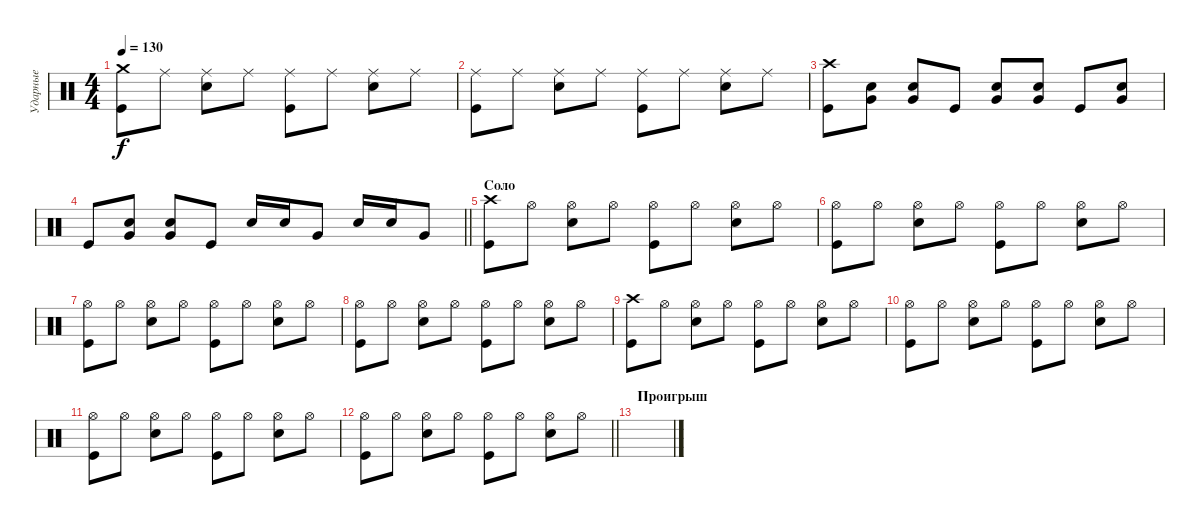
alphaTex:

\track ("Ударные" "Ударные") {instrument percussion}
\staff {score}
\articulation defaults
\ts (4 4)
\tempo 130
\clef neutral
\ks c
("Kick (hit)" "Crash medium (hit)").8{dy f} "Ride (middle)".8 ("Snare (hit) 2" "Ride (middle)").8 "Ride (middle)".8 ("Kick (hit)" "Ride (middle)").8 "Ride (middle)".8 ("Snare (hit) 2" "Ride (middle)").8 "Ride (middle)".8 |
("Kick (hit)" "Ride (middle)").8 "Ride (middle)".8 ("Snare (hit) 2" "Ride (middle)").8 "Ride (middle)".8 ("Kick (hit)" "Ride (middle)").8 "Ride (middle)".8 ("Snare (hit) 2" "Ride (middle)").8 "Ride (middle)".8 |
("Kick (hit)" "Crash high (hit)").8 ("Snare (hit) 2" "Very Low Tom (hit)").8 ("Snare (hit) 2" "Very Low Tom (hit)").8 "Kick (hit)".8 ("Snare (hit) 2" "Very Low Tom (hit)").8 ("Snare (hit) 2" "Very Low Tom (hit)").8 "Kick (hit)".8 ("Snare (hit) 2" "Very Low Tom (hit)").8 |
\barLineRight lightlight "Kick (hit)".8
("Snare (hit) 2" "Very Low Tom (hit)").8 ("Snare (hit) 2" "Very Low Tom (hit)").8 "Kick (hit)".8 "Snare (hit) 2".16 "Snare (hit) 2".16 "Very Low Tom (hit)".8 "Snare (hit) 2".16 "Snare (hit) 2".16 "Very Low Tom (hit)".8 |
\section ("" "Соло")
("Kick (hit)" "Crash high (hit)").8 "Hi-Hat (open)".8 ("Snare (hit) 2" "Hi-Hat (open)").8 "Hi-Hat (open)".8 ("Kick (hit)" "Hi-Hat (open)").8 "Hi-Hat (open)".8 ("Snare (hit) 2" "Hi-Hat (open)").8 "Hi-Hat (open)".8 |
("Kick (hit)" "Hi-Hat (open)").8 "Hi-Hat (open)".8 ("Snare (hit) 2" "Hi-Hat (open)").8 "Hi-Hat (open)".8 ("Kick (hit)" "Hi-Hat (open)").8 "Hi-Hat (open)".8 ("Snare (hit) 2" "Hi-Hat (open)").8 "Hi-Hat (open)".8 |
("Kick (hit)" "Hi-Hat (open)").8 "Hi-Hat (open)".8 ("Snare (hit) 2" "Hi-Hat (open)").8 "Hi-Hat (open)".8 ("Kick (hit)" "Hi-Hat (open)").8 "Hi-Hat (open)".8 ("Snare (hit) 2" "Hi-Hat (open)").8 "Hi-Hat (open)".8 |
("Kick (hit)" "Hi-Hat (open)").8 "Hi-Hat (open)".8 ("Snare (hit) 2" "Hi-Hat (open)").8 "Hi-Hat (open)".8 ("Kick (hit)" "Hi-Hat (open)").8 "Hi-Hat (open)".8 ("Snare (hit) 2" "Hi-Hat (open)").8 "Hi-Hat (open)".8 |
("Kick (hit)" "Crash high (hit)").8 "Hi-Hat (open)".8 ("Snare (hit) 2" "Hi-Hat (open)").8 "Hi-Hat (open)".8 ("Kick (hit)" "Hi-Hat (open)").8 "Hi-Hat (open)".8 ("Snare (hit) 2" "Hi-Hat (open)").8 "Hi-Hat (open)".8 |
("Kick (hit)" "Hi-Hat (open)").8 "Hi-Hat (open)".8 ("Snare (hit) 2" "Hi-Hat (open)").8 "Hi-Hat (open)".8 ("Kick (hit)" "Hi-Hat (open)").8 "Hi-Hat (open)".8 ("Snare (hit) 2" "Hi-Hat (open)").8 "Hi-Hat (open)".8 |
("Kick (hit)" "Hi-Hat (open)").8 "Hi-Hat (open)".8 ("Snare (hit) 2" "Hi-Hat (open)").8 "Hi-Hat (open)".8 ("Kick (hit)" "Hi-Hat (open)").8 "Hi-Hat (open)".8 ("Snare (hit) 2" "Hi-Hat (open)").8 "Hi-Hat (open)".8 |
\barLineRight lightlight
("Kick (hit)" "Hi-Hat (open)").8 "Hi-Hat (open)".8 ("Snare (hit) 2" "Hi-Hat (open)").8 "Hi-Hat (open)".8 ("Kick (hit)" "Hi-Hat (open)").8 "Hi-Hat (open)".8 ("Snare (hit) 2" "Hi-Hat (open)").8 "Hi-Hat (open)".8 |
\section ("" "Проигрыш")
